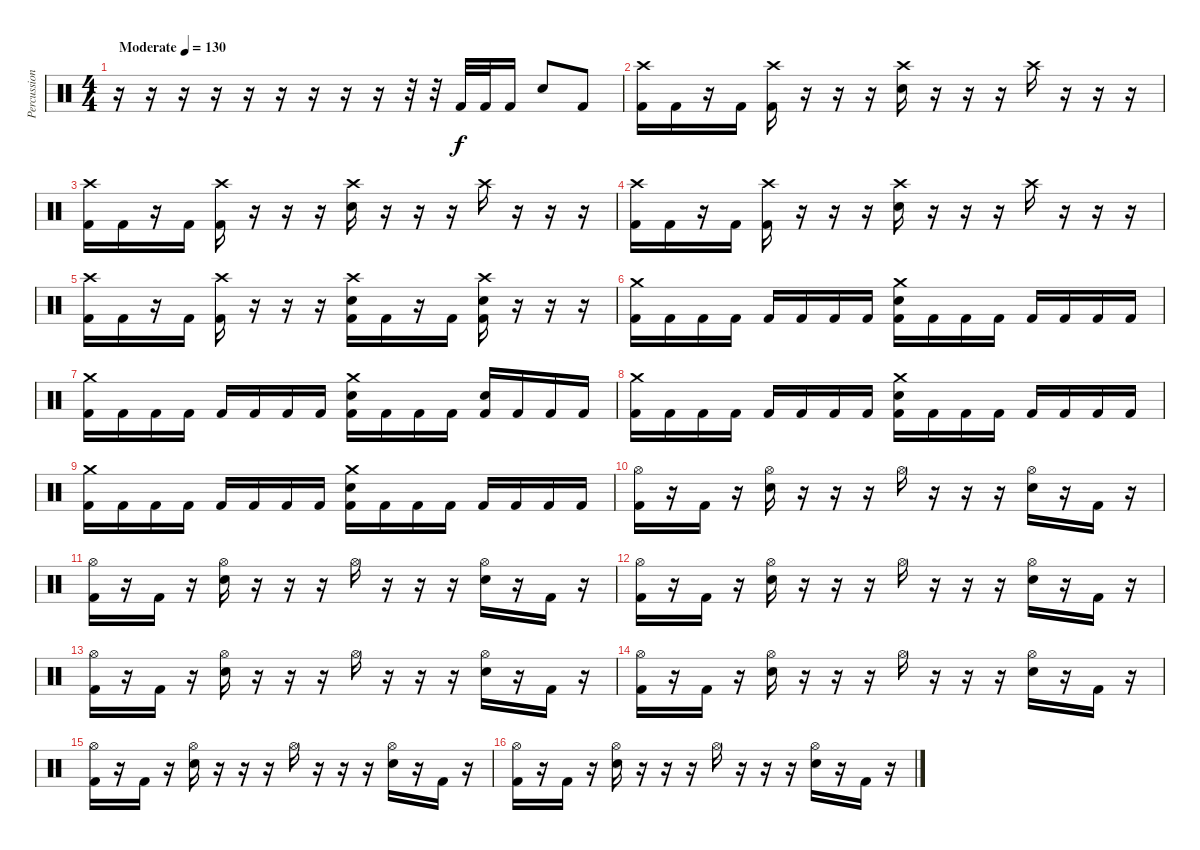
\track ("Percussion" "Percussion") {instrument percussion}
\staff {score}
\articulation defaults
\ts (4 4)
\tempo (130 "Moderate")
\clef neutral
\ks c
r.16{dy f} r.16 r.16 r.16 r.16 r.16 r.16 r.16 r.16 r.32 r.32 "Kick (hit) 2".32 "Kick (hit) 2".32 "Kick (hit) 2".16 "Snare (hit) 2".8 "Kick (hit) 2".8 |
("Crash high (hit)" "Kick (hit) 2").16 "Kick (hit) 2".16 r.16 "Kick (hit) 2".16 ("Crash high (hit)" "Kick (hit) 2").16 r.16 r.16 r.16 ("Crash high (hit)" "Snare (hit) 2").16 r.16 r.16 r.16 "Crash high (hit)".16 r.16 r.16 r.16 |
("Crash high (hit)" "Kick (hit) 2").16 "Kick (hit) 2".16 r.16 "Kick (hit) 2".16 ("Crash high (hit)" "Kick (hit) 2").16 r.16 r.16 r.16 ("Crash high (hit)" "Snare (hit) 2").16 r.16 r.16 r.16 "Crash high (hit)".16 r.16 r.16 r.16 |
("Crash high (hit)" "Kick (hit) 2").16 "Kick (hit) 2".16 r.16 "Kick (hit) 2".16 ("Crash high (hit)" "Kick (hit) 2").16 r.16 r.16 r.16 ("Crash high (hit)" "Snare (hit) 2").16 r.16 r.16 r.16 "Crash high (hit)".16 r.16 r.16 r.16 |
("Crash high (hit)" "Kick (hit) 2").16 "Kick (hit) 2".16 r.16 "Kick (hit) 2".16 ("Crash high (hit)" "Kick (hit) 2").16 r.16 r.16 r.16 ("Crash high (hit)" "Snare (hit) 2" "Kick (hit) 2").16 "Kick (hit) 2".16 r.16 "Kick (hit) 2".16 ("Crash high (hit)" "Snare (hit) 2" "Kick (hit) 2").16 r.16 r.16 r.16 |
("Crash medium (hit)" "Kick (hit) 2").16 "Kick (hit) 2".16 "Kick (hit) 2".16 "Kick (hit) 2".16 "Kick (hit) 2".16 "Kick (hit) 2".16 "Kick (hit) 2".16 "Kick (hit) 2".16 ("Crash medium (hit)" "Snare (hit) 2" "Kick (hit) 2").16 "Kick (hit) 2".16 "Kick (hit) 2".16 "Kick (hit) 2".16 "Kick (hit) 2".16 "Kick (hit) 2".16 "Kick (hit) 2".16 "Kick (hit) 2".16 |
("Crash medium (hit)" "Kick (hit) 2").16 "Kick (hit) 2".16 "Kick (hit) 2".16 "Kick (hit) 2".16 "Kick (hit) 2".16 "Kick (hit) 2".16 "Kick (hit) 2".16 "Kick (hit) 2".16 ("Crash medium (hit)" "Snare (hit) 2" "Kick (hit) 2").16 "Kick (hit) 2".16 "Kick (hit) 2".16 "Kick (hit) 2".16 ("Snare (hit) 2" "Kick (hit) 2").16 "Kick (hit) 2".16 "Kick (hit) 2".16 "Kick (hit) 2".16 |
("Crash medium (hit)" "Kick (hit) 2").16 "Kick (hit) 2".16 "Kick (hit) 2".16 "Kick (hit) 2".16 "Kick (hit) 2".16 "Kick (hit) 2".16 "Kick (hit) 2".16 "Kick (hit) 2".16 ("Crash medium (hit)" "Snare (hit) 2" "Kick (hit) 2").16 "Kick (hit) 2".16 "Kick (hit) 2".16 "Kick (hit) 2".16 "Kick (hit) 2".16 "Kick (hit) 2".16 "Kick (hit) 2".16 "Kick (hit) 2".16 |
("Crash medium (hit)" "Kick (hit) 2").16 "Kick (hit) 2".16 "Kick (hit) 2".16 "Kick (hit) 2".16 "Kick (hit) 2".16 "Kick (hit) 2".16 "Kick (hit) 2".16 "Kick (hit) 2".16 ("Crash medium (hit)" "Snare (hit) 2" "Kick (hit) 2").16 "Kick (hit) 2".16 "Kick (hit) 2".16 "Kick (hit) 2".16 "Kick (hit) 2".16 "Kick (hit) 2".16 "Kick (hit) 2".16 "Kick (hit) 2".16 |
("Hi-Hat (open)" "Kick (hit) 2").16 r.16 "Kick (hit) 2".16 r.16 ("Hi-Hat (open)" "Snare (hit) 2").16 r.16 r.16 r.16 "Hi-Hat (open)".16 r.16 r.16 r.16 ("Hi-Hat (open)" "Snare (hit) 2").16 r.16 "Kick (hit) 2".16 r.16 |
("Hi-Hat (open)" "Kick (hit) 2").16 r.16 "Kick (hit) 2".16 r.16 ("Hi-Hat (open)" "Snare (hit) 2").16 r.16 r.16 r.16 "Hi-Hat (open)".16 r.16 r.16 r.16 ("Hi-Hat (open)" "Snare (hit) 2").16 r.16 "Kick (hit) 2".16 r.16 |
("Hi-Hat (open)" "Kick (hit) 2").16 r.16 "Kick (hit) 2".16 r.16 ("Hi-Hat (open)" "Snare (hit) 2").16 r.16 r.16 r.16 "Hi-Hat (open)".16 r.16 r.16 r.16 ("Hi-Hat (open)" "Snare (hit) 2").16 r.16 "Kick (hit) 2".16 r.16 |
("Hi-Hat (open)" "Kick (hit) 2").16 r.16 "Kick (hit) 2".16 r.16 ("Hi-Hat (open)" "Snare (hit) 2").16 r.16 r.16 r.16 "Hi-Hat (open)".16 r.16 r.16 r.16 ("Hi-Hat (open)" "Snare (hit) 2").16 r.16 "Kick (hit) 2".16 r.16 |
("Hi-Hat (open)" "Kick (hit) 2").16 r.16 "Kick (hit) 2".16 r.16 ("Hi-Hat (open)" "Snare (hit) 2").16 r.16 r.16 r.16 "Hi-Hat (open)".16 r.16 r.16 r.16 ("Hi-Hat (open)" "Snare (hit) 2").16 r.16 "Kick (hit) 2".16 r.16 |
("Hi-Hat (open)" "Kick (hit) 2").16 r.16 "Kick (hit) 2".16 r.16 ("Hi-Hat (open)" "Snare (hit) 2").16 r.16 r.16 r.16 "Hi-Hat (open)".16 r.16 r.16 r.16 ("Hi-Hat (open)" "Snare (hit) 2").16 r.16 "Kick (hit) 2".16 r.16 |
("Hi-Hat (open)" "Kick (hit) 2").16 r.16 "Kick (hit) 2".16 r.16 ("Hi-Hat (open)" "Snare (hit) 2").16 r.16 r.16 r.16 "Hi-Hat (open)".16 r.16 r.16 r.16 ("Hi-Hat (open)" "Snare (hit) 2").16 r.16 "Kick (hit) 2".16 r.16
